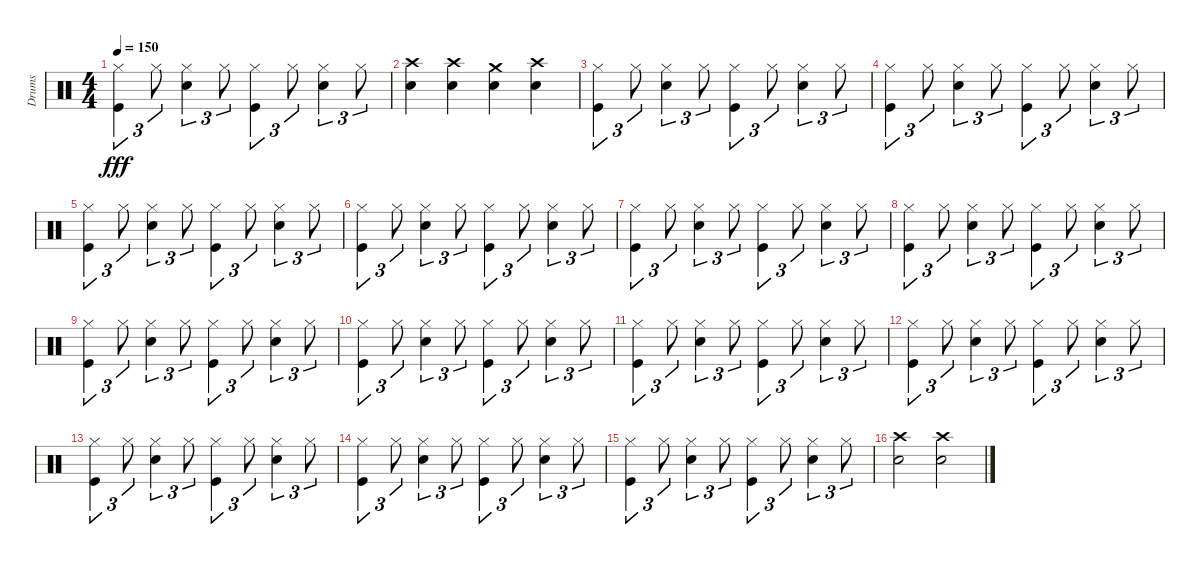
\track ("Drums" "Drums") {instrument percussion}
\staff {score}
\articulation defaults
\ts (4 4)
\tempo 150
\clef neutral
\ks c
("Hi-Hat (closed)" "Kick (hit)").4{tu (3 2) dy fff} "Hi-Hat (closed)".8{tu (3 2)} ("Hi-Hat (closed)" "Snare (hit) 2").4{tu (3 2)} "Hi-Hat (closed)".8{tu (3 2)} ("Hi-Hat (closed)" "Kick (hit)").4{tu (3 2)} "Hi-Hat (closed)".8{tu (3 2)} ("Hi-Hat (closed)" "Snare (hit) 2").4{tu (3 2)} "Hi-Hat (closed)".8{tu (3 2)} |
("Crash high (hit)" "Snare (hit) 2").4 ("Crash high (hit)" "Snare (hit) 2").4 ("Crash medium (hit)" "Snare (hit) 2").4 ("Crash high (hit)" "Snare (hit) 2").4 |
("Hi-Hat (closed)" "Kick (hit)").4{tu (3 2)} "Hi-Hat (closed)".8{tu (3 2)} ("Hi-Hat (closed)" "Snare (hit) 2").4{tu (3 2)} "Hi-Hat (closed)".8{tu (3 2)} ("Hi-Hat (closed)" "Kick (hit)").4{tu (3 2)} "Hi-Hat (closed)".8{tu (3 2)} ("Hi-Hat (closed)" "Snare (hit) 2").4{tu (3 2)} "Hi-Hat (closed)".8{tu (3 2)} |
("Hi-Hat (closed)" "Kick (hit)").4{tu (3 2)} "Hi-Hat (closed)".8{tu (3 2)} ("Hi-Hat (closed)" "Snare (hit) 2").4{tu (3 2)} "Hi-Hat (closed)".8{tu (3 2)} ("Hi-Hat (closed)" "Kick (hit)").4{tu (3 2)} "Hi-Hat (closed)".8{tu (3 2)} ("Hi-Hat (closed)" "Snare (hit) 2").4{tu (3 2)} "Hi-Hat (closed)".8{tu (3 2)} |
("Hi-Hat (closed)" "Kick (hit)").4{tu (3 2)} "Hi-Hat (closed)".8{tu (3 2)} ("Hi-Hat (closed)" "Snare (hit) 2").4{tu (3 2)} "Hi-Hat (closed)".8{tu (3 2)} ("Hi-Hat (closed)" "Kick (hit)").4{tu (3 2)} "Hi-Hat (closed)".8{tu (3 2)} ("Hi-Hat (closed)" "Snare (hit) 2").4{tu (3 2)} "Hi-Hat (closed)".8{tu (3 2)} |
("Hi-Hat (closed)" "Kick (hit)").4{tu (3 2)} "Hi-Hat (closed)".8{tu (3 2)} ("Hi-Hat (closed)" "Snare (hit) 2").4{tu (3 2)} "Hi-Hat (closed)".8{tu (3 2)} ("Hi-Hat (closed)" "Kick (hit)").4{tu (3 2)} "Hi-Hat (closed)".8{tu (3 2)} ("Hi-Hat (closed)" "Snare (hit) 2").4{tu (3 2)} "Hi-Hat (closed)".8{tu (3 2)} |
("Hi-Hat (closed)" "Kick (hit)").4{tu (3 2)} "Hi-Hat (closed)".8{tu (3 2)} ("Hi-Hat (closed)" "Snare (hit) 2").4{tu (3 2)} "Hi-Hat (closed)".8{tu (3 2)} ("Hi-Hat (closed)" "Kick (hit)").4{tu (3 2)} "Hi-Hat (closed)".8{tu (3 2)} ("Hi-Hat (closed)" "Snare (hit) 2").4{tu (3 2)} "Hi-Hat (closed)".8{tu (3 2)} |
("Hi-Hat (closed)" "Kick (hit)").4{tu (3 2)} "Hi-Hat (closed)".8{tu (3 2)} ("Hi-Hat (closed)" "Snare (hit) 2").4{tu (3 2)} "Hi-Hat (closed)".8{tu (3 2)} ("Hi-Hat (closed)" "Kick (hit)").4{tu (3 2)} "Hi-Hat (closed)".8{tu (3 2)} ("Hi-Hat (closed)" "Snare (hit) 2").4{tu (3 2)} "Hi-Hat (closed)".8{tu (3 2)} |
("Hi-Hat (closed)" "Kick (hit)").4{tu (3 2)} "Hi-Hat (closed)".8{tu (3 2)} ("Hi-Hat (closed)" "Snare (hit) 2").4{tu (3 2)} "Hi-Hat (closed)".8{tu (3 2)} ("Hi-Hat (closed)" "Kick (hit)").4{tu (3 2)} "Hi-Hat (closed)".8{tu (3 2)} ("Hi-Hat (closed)" "Snare (hit) 2").4{tu (3 2)} "Hi-Hat (closed)".8{tu (3 2)} |
("Hi-Hat (closed)" "Kick (hit)").4{tu (3 2)} "Hi-Hat (closed)".8{tu (3 2)} ("Hi-Hat (closed)" "Snare (hit) 2").4{tu (3 2)} "Hi-Hat (closed)".8{tu (3 2)} ("Hi-Hat (closed)" "Kick (hit)").4{tu (3 2)} "Hi-Hat (closed)".8{tu (3 2)} ("Hi-Hat (closed)" "Snare (hit) 2").4{tu (3 2)} "Hi-Hat (closed)".8{tu (3 2)} |
("Hi-Hat (closed)" "Kick (hit)").4{tu (3 2)} "Hi-Hat (closed)".8{tu (3 2)} ("Hi-Hat (closed)" "Snare (hit) 2").4{tu (3 2)} "Hi-Hat (closed)".8{tu (3 2)} ("Hi-Hat (closed)" "Kick (hit)").4{tu (3 2)} "Hi-Hat (closed)".8{tu (3 2)} ("Hi-Hat (closed)" "Snare (hit) 2").4{tu (3 2)} "Hi-Hat (closed)".8{tu (3 2)} |
("Hi-Hat (closed)" "Kick (hit)").4{tu (3 2)} "Hi-Hat (closed)".8{tu (3 2)} ("Hi-Hat (closed)" "Snare (hit) 2").4{tu (3 2)} "Hi-Hat (closed)".8{tu (3 2)} ("Hi-Hat (closed)" "Kick (hit)").4{tu (3 2)} "Hi-Hat (closed)".8{tu (3 2)} ("Hi-Hat (closed)" "Snare (hit) 2").4{tu (3 2)} "Hi-Hat (closed)".8{tu (3 2)} |
("Hi-Hat (closed)" "Kick (hit)").4{tu (3 2)} "Hi-Hat (closed)".8{tu (3 2)} ("Hi-Hat (closed)" "Snare (hit) 2").4{tu (3 2)} "Hi-Hat (closed)".8{tu (3 2)} ("Hi-Hat (closed)" "Kick (hit)").4{tu (3 2)} "Hi-Hat (closed)".8{tu (3 2)} ("Hi-Hat (closed)" "Snare (hit) 2").4{tu (3 2)} "Hi-Hat (closed)".8{tu (3 2)} |
("Hi-Hat (closed)" "Kick (hit)").4{tu (3 2)} "Hi-Hat (closed)".8{tu (3 2)} ("Hi-Hat (closed)" "Snare (hit) 2").4{tu (3 2)} "Hi-Hat (closed)".8{tu (3 2)} ("Hi-Hat (closed)" "Kick (hit)").4{tu (3 2)} "Hi-Hat (closed)".8{tu (3 2)} ("Hi-Hat (closed)" "Snare (hit) 2").4{tu (3 2)} "Hi-Hat (closed)".8{tu (3 2)} |
("Hi-Hat (closed)" "Kick (hit)").4{tu (3 2)} "Hi-Hat (closed)".8{tu (3 2)} ("Hi-Hat (closed)" "Snare (hit) 2").4{tu (3 2)} "Hi-Hat (closed)".8{tu (3 2)} ("Hi-Hat (closed)" "Kick (hit)").4{tu (3 2)} "Hi-Hat (closed)".8{tu (3 2)} ("Hi-Hat (closed)" "Snare (hit) 2").4{tu (3 2)} "Hi-Hat (closed)".8{tu (3 2)} |
("Crash high (hit)" "Snare (hit) 2").2 ("Crash high (hit)" "Snare (hit) 2").2
